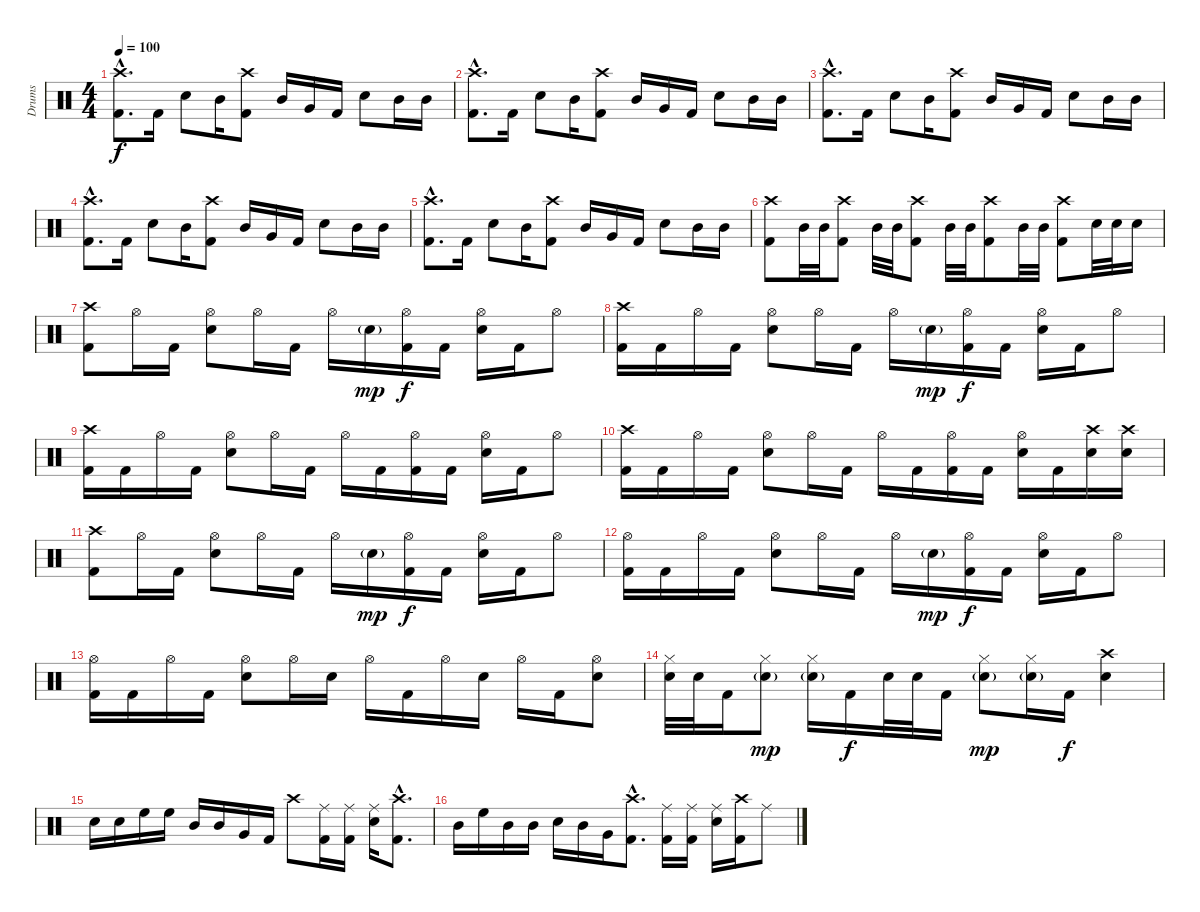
\track ("Drums" "Drums") {instrument percussion}
\staff {score}
\articulation defaults
\ts (4 4)
\tempo 100
\clef neutral
\ks c
("Crash high (hit)"{hac} "Kick (hit) 2"{hac}).8{d dy f} "Kick (hit) 2".16 "Snare (hit) 2".8 "Mid Tom (hit)".16 ("Crash high (hit)" "Kick (hit) 2").8 "Mid Tom (hit)".16 "Very Low Tom (hit)".16 "Kick (hit) 2".16 "Snare (hit) 2".8 "Mid Tom (hit)".16 "Mid Tom (hit)".16 |
("Crash high (hit)"{hac} "Kick (hit) 2"{hac}).8{d} "Kick (hit) 2".16 "Snare (hit) 2".8 "Mid Tom (hit)".16 ("Crash high (hit)" "Kick (hit) 2").8 "Mid Tom (hit)".16 "Very Low Tom (hit)".16 "Kick (hit) 2".16 "Snare (hit) 2".8 "Mid Tom (hit)".16 "Mid Tom (hit)".16 |
("Crash high (hit)"{hac} "Kick (hit) 2"{hac}).8{d} "Kick (hit) 2".16 "Snare (hit) 2".8 "Mid Tom (hit)".16 ("Crash high (hit)" "Kick (hit) 2").8 "Mid Tom (hit)".16 "Very Low Tom (hit)".16 "Kick (hit) 2".16 "Snare (hit) 2".8 "Mid Tom (hit)".16 "Mid Tom (hit)".16 |
("Crash high (hit)"{hac} "Kick (hit) 2"{hac}).8{d} "Kick (hit) 2".16 "Snare (hit) 2".8 "Mid Tom (hit)".16 ("Crash high (hit)" "Kick (hit) 2").8 "Mid Tom (hit)".16 "Very Low Tom (hit)".16 "Kick (hit) 2".16 "Snare (hit) 2".8 "Mid Tom (hit)".16 "Mid Tom (hit)".16 |
("Crash high (hit)"{hac} "Kick (hit) 2"{hac}).8{d} "Kick (hit) 2".16 "Snare (hit) 2".8 "Mid Tom (hit)".16 ("Crash high (hit)" "Kick (hit) 2").8 "Mid Tom (hit)".16 "Very Low Tom (hit)".16 "Kick (hit) 2".16 "Snare (hit) 2".8 "Mid Tom (hit)".16 "Mid Tom (hit)".16 |
("Crash high (hit)" "Kick (hit) 2").8 "Mid Tom (hit)".32 "Mid Tom (hit)".32 ("Crash high (hit)" "Kick (hit) 2").8 "Mid Tom (hit)".32 "Mid Tom (hit)".32 ("Crash high (hit)" "Kick (hit) 2").8 "Mid Tom (hit)".32 "Mid Tom (hit)".32 ("Crash high (hit)" "Kick (hit) 2").8 "Mid Tom (hit)".32 "Mid Tom (hit)".32 ("Crash high (hit)" "Kick (hit) 2").8 "Snare (hit) 2".32 "Snare (hit) 2".32 "Snare (hit) 2".16 |
("Crash high (hit)" "Kick (hit) 2").8 "Hi-Hat (open)".16 "Kick (hit) 2".16 ("Hi-Hat (open)" "Snare (hit) 2").8 "Hi-Hat (open)".16 "Kick (hit) 2".16 "Hi-Hat (open)".16 "Snare (hit) 2"{g}.16{dy mp} ("Hi-Hat (open)" "Kick (hit) 2").16{dy f} "Kick (hit) 2".16 ("Hi-Hat (open)" "Snare (hit) 2").16 "Kick (hit) 2".16 "Hi-Hat (open)".8 |
("Crash high (hit)" "Kick (hit) 2").16 "Kick (hit) 2".16 "Hi-Hat (open)".16 "Kick (hit) 2".16 ("Hi-Hat (open)" "Snare (hit) 2").8 "Hi-Hat (open)".16 "Kick (hit) 2".16 "Hi-Hat (open)".16 "Snare (hit) 2"{g}.16{dy mp} ("Hi-Hat (open)" "Kick (hit) 2").16{dy f} "Kick (hit) 2".16 ("Hi-Hat (open)" "Snare (hit) 2").16 "Kick (hit) 2".16 "Hi-Hat (open)".8 |
("Crash high (hit)" "Kick (hit) 2").16 "Kick (hit) 2".16 "Hi-Hat (open)".16 "Kick (hit) 2".16 ("Hi-Hat (open)" "Snare (hit) 2").8 "Hi-Hat (open)".16 "Kick (hit) 2".16 "Hi-Hat (open)".16 "Kick (hit) 2".16 ("Hi-Hat (open)" "Kick (hit) 2").16 "Kick (hit) 2".16 ("Hi-Hat (open)" "Snare (hit) 2").16 "Kick (hit) 2".16 "Hi-Hat (open)".8 |
("Crash high (hit)" "Kick (hit) 2").16 "Kick (hit) 2".16 "Hi-Hat (open)".16 "Kick (hit) 2".16 ("Hi-Hat (open)" "Snare (hit) 2").8 "Hi-Hat (open)".16 "Kick (hit) 2".16 "Hi-Hat (open)".16 "Kick (hit) 2".16 ("Hi-Hat (open)" "Kick (hit) 2").16 "Kick (hit) 2".16 ("Hi-Hat (open)" "Snare (hit) 2").16 "Kick (hit) 2".16 ("Crash high (hit)" "Snare (hit) 2").16 ("Crash high (hit)" "Snare (hit) 2").16 |
("Crash high (hit)" "Kick (hit) 2").8 "Hi-Hat (open)".16 "Kick (hit) 2".16 ("Hi-Hat (open)" "Snare (hit) 2").8 "Hi-Hat (open)".16 "Kick (hit) 2".16 "Hi-Hat (open)".16 "Snare (hit) 2"{g}.16{dy mp} ("Hi-Hat (open)" "Kick (hit) 2").16{dy f} "Kick (hit) 2".16 ("Hi-Hat (open)" "Snare (hit) 2").16 "Kick (hit) 2".16 "Hi-Hat (open)".8 |
("Hi-Hat (open)" "Kick (hit) 2").16 "Kick (hit) 2".16 "Hi-Hat (open)".16 "Kick (hit) 2".16 ("Hi-Hat (open)" "Snare (hit) 2").8 "Hi-Hat (open)".16 "Kick (hit) 2".16 "Hi-Hat (open)".16 "Snare (hit) 2"{g}.16{dy mp} ("Hi-Hat (open)" "Kick (hit) 2").16{dy f} "Kick (hit) 2".16 ("Hi-Hat (open)" "Snare (hit) 2").16 "Kick (hit) 2".16 "Hi-Hat (open)".8 |
("Hi-Hat (open)" "Kick (hit) 2").16 "Kick (hit) 2".16 "Hi-Hat (open)".16 "Kick (hit) 2".16 ("Hi-Hat (open)" "Snare (hit) 2").8 "Hi-Hat (open)".16 "Snare (hit) 2".16 "Hi-Hat (open)".16 "Kick (hit) 2".16 "Hi-Hat (open)".16 "Snare (hit) 2".16 "Hi-Hat (open)".16 "Kick (hit) 2".16 ("Hi-Hat (open)" "Snare (hit) 2").8 |
("Snare (hit) 2" "Hi-Hat (closed)").32 "Snare (hit) 2".32 "Kick (hit) 2".16 ("Snare (hit) 2"{g} "Hi-Hat (closed)").8{dy mp} ("Snare (hit) 2"{g} "Hi-Hat (closed)").16 "Kick (hit) 2".16{dy f} "Snare (hit) 2".32 "Snare (hit) 2".32 "Kick (hit) 2".16 ("Snare (hit) 2"{g} "Hi-Hat (closed)").8{dy mp} ("Snare (hit) 2"{g} "Hi-Hat (closed)").16 "Kick (hit) 2".16{dy f} ("Crash high (hit)" "Snare (hit) 2").4 |
"Snare (hit) 2".16 "Snare (hit) 2".16 "High Floor Tom (hit)".16 "High Floor Tom (hit)".16 "Mid Tom (hit)".16 "Mid Tom (hit)".16 "Very Low Tom (hit)".16 "Kick (hit) 2".16 "Crash high (hit)".8 ("Ride (middle)" "Kick (hit) 2").16 ("Ride (middle)" "Kick (hit) 2").16 ("Ride (middle)" "Snare (hit) 2").16 ("Crash high (hit)"{hac} "Kick (hit) 2"{hac}).8{d} |
"Mid Tom (hit)".16 "High Floor Tom (hit)".16 "Mid Tom (hit)".16 "Mid Tom (hit)".16 "Snare (hit) 2".16 "Mid Tom (hit)".16 "Very Low Tom (hit)".16 ("Crash high (hit)"{hac} "Kick (hit) 2"{hac}).8{d} ("Ride (middle)" "Kick (hit) 2").16 ("Ride (middle)" "Kick (hit) 2").16 ("Ride (middle)" "Snare (hit) 2").16 ("Crash high (hit)" "Kick (hit) 2").16 "Ride (middle)".8
